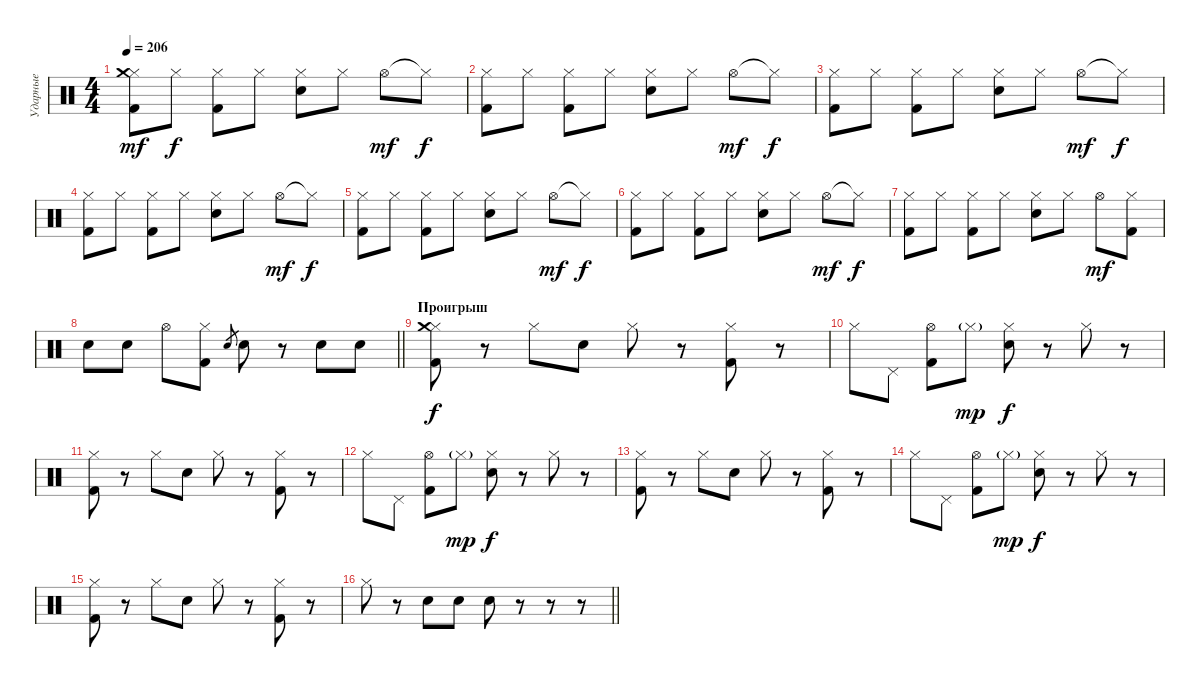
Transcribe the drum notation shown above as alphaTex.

\track ("Ударные" "Ударные") {instrument percussion}
\staff {score}
\articulation defaults
\ts (4 4)
\tempo 206
\clef neutral
\ks c
("Hi-Hat (closed)" "Kick (hit) 2" "Crash medium (hit)").8{dy mf} "Hi-Hat (closed)".8{dy f} ("Hi-Hat (closed)" "Kick (hit) 2").8 "Hi-Hat (closed)".8 ("Hi-Hat (closed)" "Electric Snare (hit)").8 "Hi-Hat (closed)".8 "Hi-Hat (open)".8{dy mf} "Hi-Hat (closed)"{t}.8{dy f} |
("Hi-Hat (closed)" "Kick (hit) 2").8 "Hi-Hat (closed)".8 ("Hi-Hat (closed)" "Kick (hit) 2").8 "Hi-Hat (closed)".8 ("Hi-Hat (closed)" "Electric Snare (hit)").8 "Hi-Hat (closed)".8 "Hi-Hat (open)".8{dy mf} "Hi-Hat (closed)"{t}.8{dy f} |
("Hi-Hat (closed)" "Kick (hit) 2").8 "Hi-Hat (closed)".8 ("Hi-Hat (closed)" "Kick (hit) 2").8 "Hi-Hat (closed)".8 ("Hi-Hat (closed)" "Electric Snare (hit)").8 "Hi-Hat (closed)".8 "Hi-Hat (open)".8{dy mf} "Hi-Hat (closed)"{t}.8{dy f} |
("Hi-Hat (closed)" "Kick (hit) 2").8 "Hi-Hat (closed)".8 ("Hi-Hat (closed)" "Kick (hit) 2").8 "Hi-Hat (closed)".8 ("Hi-Hat (closed)" "Electric Snare (hit)").8 "Hi-Hat (closed)".8 "Hi-Hat (open)".8{dy mf} "Hi-Hat (closed)"{t}.8{dy f} |
("Hi-Hat (closed)" "Kick (hit) 2").8 "Hi-Hat (closed)".8 ("Hi-Hat (closed)" "Kick (hit) 2").8 "Hi-Hat (closed)".8 ("Hi-Hat (closed)" "Electric Snare (hit)").8 "Hi-Hat (closed)".8 "Hi-Hat (open)".8{dy mf} "Hi-Hat (closed)"{t}.8{dy f} |
("Hi-Hat (closed)" "Kick (hit) 2").8 "Hi-Hat (closed)".8 ("Hi-Hat (closed)" "Kick (hit) 2").8 "Hi-Hat (closed)".8 ("Hi-Hat (closed)" "Electric Snare (hit)").8 "Hi-Hat (closed)".8 "Hi-Hat (open)".8{dy mf} "Hi-Hat (closed)"{t}.8{dy f} |
("Hi-Hat (closed)" "Kick (hit) 2").8 "Hi-Hat (closed)".8 ("Hi-Hat (closed)" "Kick (hit) 2").8 "Hi-Hat (closed)".8 ("Hi-Hat (closed)" "Electric Snare (hit)").8 "Hi-Hat (closed)".8 "Hi-Hat (open)".8{dy mf} ("Hi-Hat (closed)" "Kick (hit) 2").8 |
\barLineRight lightlight "Electric Snare (hit)".8 "Electric Snare (hit)".8 "Hi-Hat (open)".8
("Hi-Hat (closed)" "Kick (hit) 2").8 "Electric Snare (hit)".8{gr} "Electric Snare (hit)".8 r.8 "Electric Snare (hit)".8 "Electric Snare (hit)".8 |
\section ("" "Проигрыш")
("Hi-Hat (closed)" "Kick (hit) 2" "Crash medium (hit)").8{dy f} r.8 "Hi-Hat (closed)".8 "Electric Snare (hit)".8 "Hi-Hat (closed)".8 r.8 ("Hi-Hat (closed)" "Kick (hit) 2").8 r.8 |
"Hi-Hat (closed)".8 "Pedal Hi-Hat (hit)".8 ("Hi-Hat (open)" "Kick (hit) 2").8 "Hi-Hat (closed)"{g}.8{dy mp} ("Hi-Hat (closed)" "Electric Snare (hit)").8{dy f} r.8 "Hi-Hat (closed)".8 r.8 |
("Hi-Hat (closed)" "Kick (hit) 2").8 r.8 "Hi-Hat (closed)".8 "Electric Snare (hit)".8 "Hi-Hat (closed)".8 r.8 ("Hi-Hat (closed)" "Kick (hit) 2").8 r.8 |
"Hi-Hat (closed)".8 "Pedal Hi-Hat (hit)".8 ("Hi-Hat (open)" "Kick (hit) 2").8 "Hi-Hat (closed)"{g}.8{dy mp} ("Hi-Hat (closed)" "Electric Snare (hit)").8{dy f} r.8 "Hi-Hat (closed)".8 r.8 |
("Hi-Hat (closed)" "Kick (hit) 2").8 r.8 "Hi-Hat (closed)".8 "Electric Snare (hit)".8 "Hi-Hat (closed)".8 r.8 ("Hi-Hat (closed)" "Kick (hit) 2").8 r.8 |
"Hi-Hat (closed)".8 "Pedal Hi-Hat (hit)".8 ("Hi-Hat (open)" "Kick (hit) 2").8 "Hi-Hat (closed)"{g}.8{dy mp} ("Hi-Hat (closed)" "Electric Snare (hit)").8{dy f} r.8 "Hi-Hat (closed)".8 r.8 |
("Hi-Hat (closed)" "Kick (hit) 2").8 r.8 "Hi-Hat (closed)".8 "Electric Snare (hit)".8 "Hi-Hat (closed)".8 r.8 ("Hi-Hat (closed)" "Kick (hit) 2").8 r.8 |
\barLineRight lightlight "Hi-Hat (closed)".8
r.8 "Electric Snare (hit)".8 "Electric Snare (hit)".8 "Electric Snare (hit)".8 r.8 r.8 r.8
